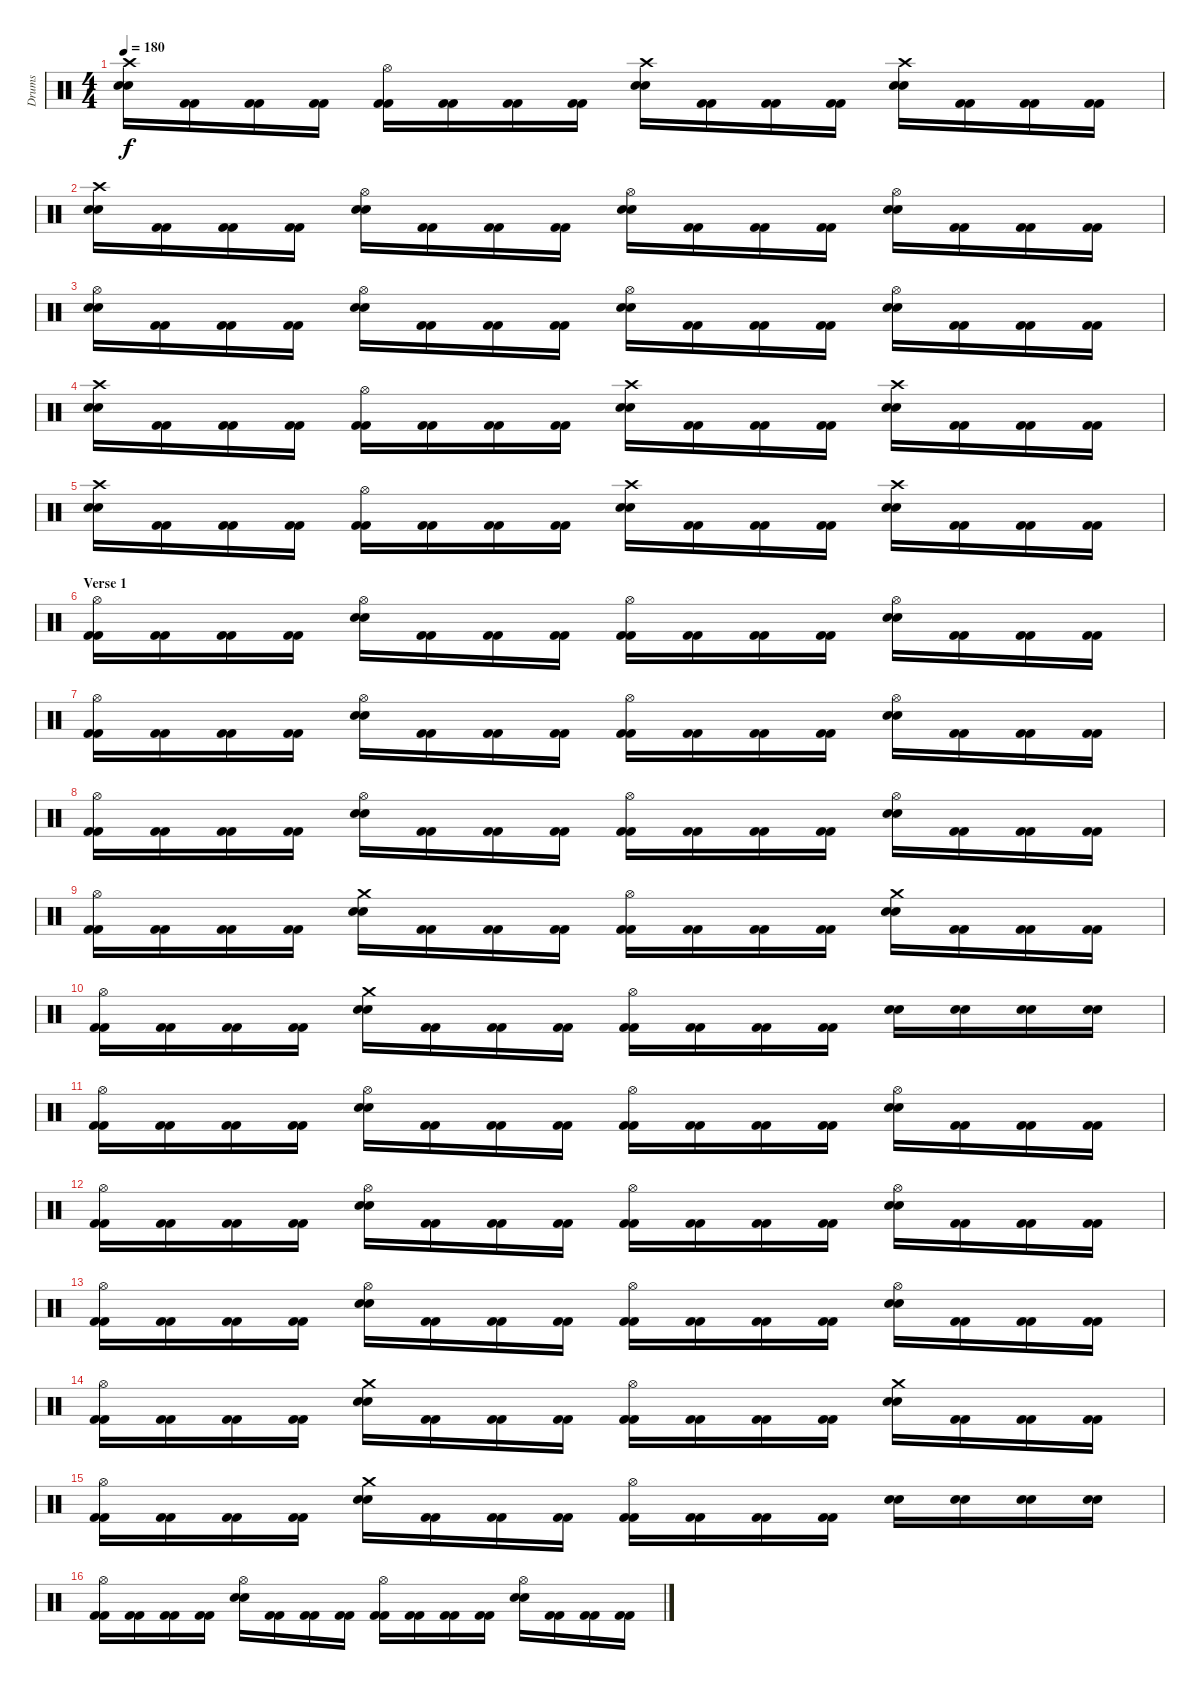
\track ("Drums" "Drums") {instrument percussion}
\staff {score}
\articulation defaults
\ts (4 4)
\tempo 180
\clef neutral
\ks c
("Crash high (hit)" "Snare (hit) 2" "Snare (hit) 2").16{dy f} ("Kick (hit) 2" "Kick (hit) 2").16 ("Kick (hit) 2" "Kick (hit) 2").16 ("Kick (hit) 2" "Kick (hit) 2").16 ("Hi-Hat (open)" "Kick (hit) 2" "Kick (hit) 2").16 ("Kick (hit) 2" "Kick (hit) 2").16 ("Kick (hit) 2" "Kick (hit) 2").16 ("Kick (hit) 2" "Kick (hit) 2").16 ("Crash high (hit)" "Snare (hit) 2" "Snare (hit) 2").16 ("Kick (hit) 2" "Kick (hit) 2").16 ("Kick (hit) 2" "Kick (hit) 2").16 ("Kick (hit) 2" "Kick (hit) 2").16 ("Crash high (hit)" "Snare (hit) 2" "Snare (hit) 2").16 ("Kick (hit) 2" "Kick (hit) 2").16 ("Kick (hit) 2" "Kick (hit) 2").16 ("Kick (hit) 2" "Kick (hit) 2").16 |
("Crash high (hit)" "Snare (hit) 2" "Snare (hit) 2").16 ("Kick (hit) 2" "Kick (hit) 2").16 ("Kick (hit) 2" "Kick (hit) 2").16 ("Kick (hit) 2" "Kick (hit) 2").16 ("Hi-Hat (open)" "Snare (hit) 2" "Snare (hit) 2").16 ("Kick (hit) 2" "Kick (hit) 2").16 ("Kick (hit) 2" "Kick (hit) 2").16 ("Kick (hit) 2" "Kick (hit) 2").16 ("Hi-Hat (open)" "Snare (hit) 2" "Snare (hit) 2").16 ("Kick (hit) 2" "Kick (hit) 2").16 ("Kick (hit) 2" "Kick (hit) 2").16 ("Kick (hit) 2" "Kick (hit) 2").16 ("Hi-Hat (open)" "Snare (hit) 2" "Snare (hit) 2").16 ("Kick (hit) 2" "Kick (hit) 2").16 ("Kick (hit) 2" "Kick (hit) 2").16 ("Kick (hit) 2" "Kick (hit) 2").16 |
("Hi-Hat (open)" "Snare (hit) 2" "Snare (hit) 2").16 ("Kick (hit) 2" "Kick (hit) 2").16 ("Kick (hit) 2" "Kick (hit) 2").16 ("Kick (hit) 2" "Kick (hit) 2").16 ("Hi-Hat (open)" "Snare (hit) 2" "Snare (hit) 2").16 ("Kick (hit) 2" "Kick (hit) 2").16 ("Kick (hit) 2" "Kick (hit) 2").16 ("Kick (hit) 2" "Kick (hit) 2").16 ("Hi-Hat (open)" "Snare (hit) 2" "Snare (hit) 2").16 ("Kick (hit) 2" "Kick (hit) 2").16 ("Kick (hit) 2" "Kick (hit) 2").16 ("Kick (hit) 2" "Kick (hit) 2").16 ("Hi-Hat (open)" "Snare (hit) 2" "Snare (hit) 2").16 ("Kick (hit) 2" "Kick (hit) 2").16 ("Kick (hit) 2" "Kick (hit) 2").16 ("Kick (hit) 2" "Kick (hit) 2").16 |
("Crash high (hit)" "Snare (hit) 2" "Snare (hit) 2").16 ("Kick (hit) 2" "Kick (hit) 2").16 ("Kick (hit) 2" "Kick (hit) 2").16 ("Kick (hit) 2" "Kick (hit) 2").16 ("Hi-Hat (open)" "Kick (hit) 2" "Kick (hit) 2").16 ("Kick (hit) 2" "Kick (hit) 2").16 ("Kick (hit) 2" "Kick (hit) 2").16 ("Kick (hit) 2" "Kick (hit) 2").16 ("Crash high (hit)" "Snare (hit) 2" "Snare (hit) 2").16 ("Kick (hit) 2" "Kick (hit) 2").16 ("Kick (hit) 2" "Kick (hit) 2").16 ("Kick (hit) 2" "Kick (hit) 2").16 ("Crash high (hit)" "Snare (hit) 2" "Snare (hit) 2").16 ("Kick (hit) 2" "Kick (hit) 2").16 ("Kick (hit) 2" "Kick (hit) 2").16 ("Kick (hit) 2" "Kick (hit) 2").16 |
("Crash high (hit)" "Snare (hit) 2" "Snare (hit) 2").16 ("Kick (hit) 2" "Kick (hit) 2").16 ("Kick (hit) 2" "Kick (hit) 2").16 ("Kick (hit) 2" "Kick (hit) 2").16 ("Hi-Hat (open)" "Kick (hit) 2" "Kick (hit) 2").16 ("Kick (hit) 2" "Kick (hit) 2").16 ("Kick (hit) 2" "Kick (hit) 2").16 ("Kick (hit) 2" "Kick (hit) 2").16 ("Crash high (hit)" "Snare (hit) 2" "Snare (hit) 2").16 ("Kick (hit) 2" "Kick (hit) 2").16 ("Kick (hit) 2" "Kick (hit) 2").16 ("Kick (hit) 2" "Kick (hit) 2").16 ("Crash high (hit)" "Snare (hit) 2" "Snare (hit) 2").16 ("Kick (hit) 2" "Kick (hit) 2").16 ("Kick (hit) 2" "Kick (hit) 2").16 ("Kick (hit) 2" "Kick (hit) 2").16 |
\section ("" "Verse 1")
("Hi-Hat (open)" "Kick (hit) 2" "Kick (hit) 2").16 ("Kick (hit) 2" "Kick (hit) 2").16 ("Kick (hit) 2" "Kick (hit) 2").16 ("Kick (hit) 2" "Kick (hit) 2").16 ("Hi-Hat (open)" "Snare (hit) 2" "Snare (hit) 2").16 ("Kick (hit) 2" "Kick (hit) 2").16 ("Kick (hit) 2" "Kick (hit) 2").16 ("Kick (hit) 2" "Kick (hit) 2").16 ("Hi-Hat (open)" "Kick (hit) 2" "Kick (hit) 2").16 ("Kick (hit) 2" "Kick (hit) 2").16 ("Kick (hit) 2" "Kick (hit) 2").16 ("Kick (hit) 2" "Kick (hit) 2").16 ("Hi-Hat (open)" "Snare (hit) 2" "Snare (hit) 2").16 ("Kick (hit) 2" "Kick (hit) 2").16 ("Kick (hit) 2" "Kick (hit) 2").16 ("Kick (hit) 2" "Kick (hit) 2").16 |
("Hi-Hat (open)" "Kick (hit) 2" "Kick (hit) 2").16 ("Kick (hit) 2" "Kick (hit) 2").16 ("Kick (hit) 2" "Kick (hit) 2").16 ("Kick (hit) 2" "Kick (hit) 2").16 ("Hi-Hat (open)" "Snare (hit) 2" "Snare (hit) 2").16 ("Kick (hit) 2" "Kick (hit) 2").16 ("Kick (hit) 2" "Kick (hit) 2").16 ("Kick (hit) 2" "Kick (hit) 2").16 ("Hi-Hat (open)" "Kick (hit) 2" "Kick (hit) 2").16 ("Kick (hit) 2" "Kick (hit) 2").16 ("Kick (hit) 2" "Kick (hit) 2").16 ("Kick (hit) 2" "Kick (hit) 2").16 ("Hi-Hat (open)" "Snare (hit) 2" "Snare (hit) 2").16 ("Kick (hit) 2" "Kick (hit) 2").16 ("Kick (hit) 2" "Kick (hit) 2").16 ("Kick (hit) 2" "Kick (hit) 2").16 |
("Hi-Hat (open)" "Kick (hit) 2" "Kick (hit) 2").16 ("Kick (hit) 2" "Kick (hit) 2").16 ("Kick (hit) 2" "Kick (hit) 2").16 ("Kick (hit) 2" "Kick (hit) 2").16 ("Hi-Hat (open)" "Snare (hit) 2" "Snare (hit) 2").16 ("Kick (hit) 2" "Kick (hit) 2").16 ("Kick (hit) 2" "Kick (hit) 2").16 ("Kick (hit) 2" "Kick (hit) 2").16 ("Hi-Hat (open)" "Kick (hit) 2" "Kick (hit) 2").16 ("Kick (hit) 2" "Kick (hit) 2").16 ("Kick (hit) 2" "Kick (hit) 2").16 ("Kick (hit) 2" "Kick (hit) 2").16 ("Hi-Hat (open)" "Snare (hit) 2" "Snare (hit) 2").16 ("Kick (hit) 2" "Kick (hit) 2").16 ("Kick (hit) 2" "Kick (hit) 2").16 ("Kick (hit) 2" "Kick (hit) 2").16 |
("Hi-Hat (open)" "Kick (hit) 2" "Kick (hit) 2").16 ("Kick (hit) 2" "Kick (hit) 2").16 ("Kick (hit) 2" "Kick (hit) 2").16 ("Kick (hit) 2" "Kick (hit) 2").16 ("Crash medium (hit)" "Snare (hit) 2" "Snare (hit) 2").16 ("Kick (hit) 2" "Kick (hit) 2").16 ("Kick (hit) 2" "Kick (hit) 2").16 ("Kick (hit) 2" "Kick (hit) 2").16 ("Hi-Hat (open)" "Kick (hit) 2" "Kick (hit) 2").16 ("Kick (hit) 2" "Kick (hit) 2").16 ("Kick (hit) 2" "Kick (hit) 2").16 ("Kick (hit) 2" "Kick (hit) 2").16 ("Crash medium (hit)" "Snare (hit) 2" "Snare (hit) 2").16 ("Kick (hit) 2" "Kick (hit) 2").16 ("Kick (hit) 2" "Kick (hit) 2").16 ("Kick (hit) 2" "Kick (hit) 2").16 |
("Hi-Hat (open)" "Kick (hit) 2" "Kick (hit) 2").16 ("Kick (hit) 2" "Kick (hit) 2").16 ("Kick (hit) 2" "Kick (hit) 2").16 ("Kick (hit) 2" "Kick (hit) 2").16 ("Crash medium (hit)" "Snare (hit) 2" "Snare (hit) 2").16 ("Kick (hit) 2" "Kick (hit) 2").16 ("Kick (hit) 2" "Kick (hit) 2").16 ("Kick (hit) 2" "Kick (hit) 2").16 ("Hi-Hat (open)" "Kick (hit) 2" "Kick (hit) 2").16 ("Kick (hit) 2" "Kick (hit) 2").16 ("Kick (hit) 2" "Kick (hit) 2").16 ("Kick (hit) 2" "Kick (hit) 2").16 ("Snare (hit) 2" "Snare (hit) 2").16 ("Snare (hit) 2" "Snare (hit) 2").16 ("Snare (hit) 2" "Snare (hit) 2").16 ("Snare (hit) 2" "Snare (hit) 2").16 |
("Hi-Hat (open)" "Kick (hit) 2" "Kick (hit) 2").16 ("Kick (hit) 2" "Kick (hit) 2").16 ("Kick (hit) 2" "Kick (hit) 2").16 ("Kick (hit) 2" "Kick (hit) 2").16 ("Hi-Hat (open)" "Snare (hit) 2" "Snare (hit) 2").16 ("Kick (hit) 2" "Kick (hit) 2").16 ("Kick (hit) 2" "Kick (hit) 2").16 ("Kick (hit) 2" "Kick (hit) 2").16 ("Hi-Hat (open)" "Kick (hit) 2" "Kick (hit) 2").16 ("Kick (hit) 2" "Kick (hit) 2").16 ("Kick (hit) 2" "Kick (hit) 2").16 ("Kick (hit) 2" "Kick (hit) 2").16 ("Hi-Hat (open)" "Snare (hit) 2" "Snare (hit) 2").16 ("Kick (hit) 2" "Kick (hit) 2").16 ("Kick (hit) 2" "Kick (hit) 2").16 ("Kick (hit) 2" "Kick (hit) 2").16 |
("Hi-Hat (open)" "Kick (hit) 2" "Kick (hit) 2").16 ("Kick (hit) 2" "Kick (hit) 2").16 ("Kick (hit) 2" "Kick (hit) 2").16 ("Kick (hit) 2" "Kick (hit) 2").16 ("Hi-Hat (open)" "Snare (hit) 2" "Snare (hit) 2").16 ("Kick (hit) 2" "Kick (hit) 2").16 ("Kick (hit) 2" "Kick (hit) 2").16 ("Kick (hit) 2" "Kick (hit) 2").16 ("Hi-Hat (open)" "Kick (hit) 2" "Kick (hit) 2").16 ("Kick (hit) 2" "Kick (hit) 2").16 ("Kick (hit) 2" "Kick (hit) 2").16 ("Kick (hit) 2" "Kick (hit) 2").16 ("Hi-Hat (open)" "Snare (hit) 2" "Snare (hit) 2").16 ("Kick (hit) 2" "Kick (hit) 2").16 ("Kick (hit) 2" "Kick (hit) 2").16 ("Kick (hit) 2" "Kick (hit) 2").16 |
("Hi-Hat (open)" "Kick (hit) 2" "Kick (hit) 2").16 ("Kick (hit) 2" "Kick (hit) 2").16 ("Kick (hit) 2" "Kick (hit) 2").16 ("Kick (hit) 2" "Kick (hit) 2").16 ("Hi-Hat (open)" "Snare (hit) 2" "Snare (hit) 2").16 ("Kick (hit) 2" "Kick (hit) 2").16 ("Kick (hit) 2" "Kick (hit) 2").16 ("Kick (hit) 2" "Kick (hit) 2").16 ("Hi-Hat (open)" "Kick (hit) 2" "Kick (hit) 2").16 ("Kick (hit) 2" "Kick (hit) 2").16 ("Kick (hit) 2" "Kick (hit) 2").16 ("Kick (hit) 2" "Kick (hit) 2").16 ("Hi-Hat (open)" "Snare (hit) 2" "Snare (hit) 2").16 ("Kick (hit) 2" "Kick (hit) 2").16 ("Kick (hit) 2" "Kick (hit) 2").16 ("Kick (hit) 2" "Kick (hit) 2").16 |
("Hi-Hat (open)" "Kick (hit) 2" "Kick (hit) 2").16 ("Kick (hit) 2" "Kick (hit) 2").16 ("Kick (hit) 2" "Kick (hit) 2").16 ("Kick (hit) 2" "Kick (hit) 2").16 ("Crash medium (hit)" "Snare (hit) 2" "Snare (hit) 2").16 ("Kick (hit) 2" "Kick (hit) 2").16 ("Kick (hit) 2" "Kick (hit) 2").16 ("Kick (hit) 2" "Kick (hit) 2").16 ("Hi-Hat (open)" "Kick (hit) 2" "Kick (hit) 2").16 ("Kick (hit) 2" "Kick (hit) 2").16 ("Kick (hit) 2" "Kick (hit) 2").16 ("Kick (hit) 2" "Kick (hit) 2").16 ("Crash medium (hit)" "Snare (hit) 2" "Snare (hit) 2").16 ("Kick (hit) 2" "Kick (hit) 2").16 ("Kick (hit) 2" "Kick (hit) 2").16 ("Kick (hit) 2" "Kick (hit) 2").16 |
("Hi-Hat (open)" "Kick (hit) 2" "Kick (hit) 2").16 ("Kick (hit) 2" "Kick (hit) 2").16 ("Kick (hit) 2" "Kick (hit) 2").16 ("Kick (hit) 2" "Kick (hit) 2").16 ("Crash medium (hit)" "Snare (hit) 2" "Snare (hit) 2").16 ("Kick (hit) 2" "Kick (hit) 2").16 ("Kick (hit) 2" "Kick (hit) 2").16 ("Kick (hit) 2" "Kick (hit) 2").16 ("Hi-Hat (open)" "Kick (hit) 2" "Kick (hit) 2").16 ("Kick (hit) 2" "Kick (hit) 2").16 ("Kick (hit) 2" "Kick (hit) 2").16 ("Kick (hit) 2" "Kick (hit) 2").16 ("Snare (hit) 2" "Snare (hit) 2").16 ("Snare (hit) 2" "Snare (hit) 2").16 ("Snare (hit) 2" "Snare (hit) 2").16 ("Snare (hit) 2" "Snare (hit) 2").16 |
("Hi-Hat (open)" "Kick (hit) 2" "Kick (hit) 2").16 ("Kick (hit) 2" "Kick (hit) 2").16 ("Kick (hit) 2" "Kick (hit) 2").16 ("Kick (hit) 2" "Kick (hit) 2").16 ("Hi-Hat (open)" "Snare (hit) 2" "Snare (hit) 2").16 ("Kick (hit) 2" "Kick (hit) 2").16 ("Kick (hit) 2" "Kick (hit) 2").16 ("Kick (hit) 2" "Kick (hit) 2").16 ("Hi-Hat (open)" "Kick (hit) 2" "Kick (hit) 2").16 ("Kick (hit) 2" "Kick (hit) 2").16 ("Kick (hit) 2" "Kick (hit) 2").16 ("Kick (hit) 2" "Kick (hit) 2").16 ("Hi-Hat (open)" "Snare (hit) 2" "Snare (hit) 2").16 ("Kick (hit) 2" "Kick (hit) 2").16 ("Kick (hit) 2" "Kick (hit) 2").16 ("Kick (hit) 2" "Kick (hit) 2").16
